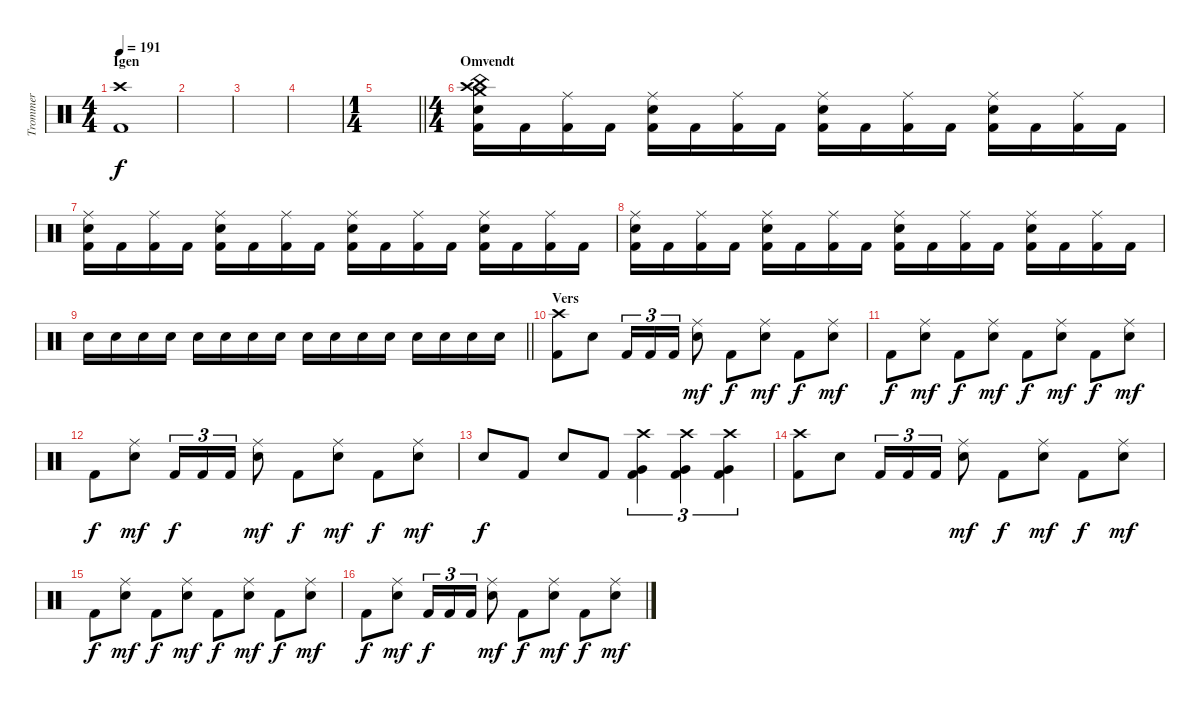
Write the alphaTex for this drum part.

\track ("Trommer" "Trommer") {instrument percussion}
\staff {score}
\articulation defaults
\ts (4 4)
\section ("" "Igen")
\tempo 191
\clef neutral
\ks c
("Crash high (hit)" "Kick (hit) 2").1{dy f} |
|
|
|
\ts (1 4)
\barLineRight lightlight
|
\ts (4 4)
\section ("" "Omvendt")
("Crash high (hit)" "Crash medium (hit)" "China (hit)" "Snare (hit) 2" "Kick (hit) 2").16 "Kick (hit) 2".16 ("Ride (middle)" "Kick (hit) 2").16 "Kick (hit) 2".16 ("Ride (middle)" "Snare (hit) 2" "Kick (hit) 2").16 "Kick (hit) 2".16 ("Ride (middle)" "Kick (hit) 2").16 "Kick (hit) 2".16 ("Ride (middle)" "Snare (hit) 2" "Kick (hit) 2").16 "Kick (hit) 2".16 ("Ride (middle)" "Kick (hit) 2").16 "Kick (hit) 2".16 ("Ride (middle)" "Snare (hit) 2" "Kick (hit) 2").16 "Kick (hit) 2".16 ("Ride (middle)" "Kick (hit) 2").16 "Kick (hit) 2".16 |
("Ride (middle)" "Snare (hit) 2" "Kick (hit) 2").16 "Kick (hit) 2".16 ("Ride (middle)" "Kick (hit) 2").16 "Kick (hit) 2".16 ("Ride (middle)" "Snare (hit) 2" "Kick (hit) 2").16 "Kick (hit) 2".16 ("Ride (middle)" "Kick (hit) 2").16 "Kick (hit) 2".16 ("Ride (middle)" "Snare (hit) 2" "Kick (hit) 2").16 "Kick (hit) 2".16 ("Ride (middle)" "Kick (hit) 2").16 "Kick (hit) 2".16 ("Ride (middle)" "Snare (hit) 2" "Kick (hit) 2").16 "Kick (hit) 2".16 ("Ride (middle)" "Kick (hit) 2").16 "Kick (hit) 2".16 |
("Ride (middle)" "Snare (hit) 2" "Kick (hit) 2").16 "Kick (hit) 2".16 ("Ride (middle)" "Kick (hit) 2").16 "Kick (hit) 2".16 ("Ride (middle)" "Snare (hit) 2" "Kick (hit) 2").16 "Kick (hit) 2".16 ("Ride (middle)" "Kick (hit) 2").16 "Kick (hit) 2".16 ("Ride (middle)" "Snare (hit) 2" "Kick (hit) 2").16 "Kick (hit) 2".16 ("Ride (middle)" "Kick (hit) 2").16 "Kick (hit) 2".16 ("Ride (middle)" "Snare (hit) 2" "Kick (hit) 2").16 "Kick (hit) 2".16 ("Ride (middle)" "Kick (hit) 2").16 "Kick (hit) 2".16 |
\barLineRight lightlight "Electric Snare (hit)".16 "Electric Snare (hit)".16 "Electric Snare (hit)".16 "Electric Snare (hit)".16 "Electric Snare (hit)".16 "Electric Snare (hit)".16 "Electric Snare (hit)".16 "Electric Snare (hit)".16 "Electric Snare (hit)".16 "Electric Snare (hit)".16 "Electric Snare (hit)".16 "Electric Snare (hit)".16 "Electric Snare (hit)".16 "Electric Snare (hit)".16 "Electric Snare (hit)".16 "Electric Snare (hit)".16
|
\section ("" "Vers")
("Crash high (hit)" "Kick (hit) 2").8 "Electric Snare (hit)".8 "Kick (hit) 2".16{tu (3 2)} "Kick (hit) 2".16{tu (3 2)} "Kick (hit) 2".16{tu (3 2)} ("Ride (middle)" "Electric Snare (hit)").8{dy mf} "Kick (hit) 2".8{dy f} ("Ride (middle)" "Electric Snare (hit)").8{dy mf} "Kick (hit) 2".8{dy f} ("Ride (middle)" "Electric Snare (hit)").8{dy mf} |
"Kick (hit) 2".8{dy f} ("Ride (middle)" "Electric Snare (hit)").8{dy mf} "Kick (hit) 2".8{dy f} ("Ride (middle)" "Electric Snare (hit)").8{dy mf} "Kick (hit) 2".8{dy f} ("Ride (middle)" "Electric Snare (hit)").8{dy mf} "Kick (hit) 2".8{dy f} ("Ride (middle)" "Electric Snare (hit)").8{dy mf} |
"Kick (hit) 2".8{dy f} ("Ride (middle)" "Electric Snare (hit)").8{dy mf} "Kick (hit) 2".16{tu (3 2) dy f} "Kick (hit) 2".16{tu (3 2)} "Kick (hit) 2".16{tu (3 2)} ("Ride (middle)" "Electric Snare (hit)").8{dy mf} "Kick (hit) 2".8{dy f} ("Ride (middle)" "Electric Snare (hit)").8{dy mf} "Kick (hit) 2".8{dy f} ("Ride (middle)" "Electric Snare (hit)").8{dy mf} |
"Electric Snare (hit)".8{dy f} "Kick (hit) 2".8 "Electric Snare (hit)".8 "Kick (hit) 2".8 ("Crash high (hit)" "Very Low Tom (hit)" "Kick (hit) 2").4{tu (3 2)} ("Crash high (hit)" "Very Low Tom (hit)" "Kick (hit) 2").4{tu (3 2)} ("Crash high (hit)" "Very Low Tom (hit)" "Kick (hit) 2").4{tu (3 2)} |
("Crash high (hit)" "Kick (hit) 2").8 "Electric Snare (hit)".8 "Kick (hit) 2".16{tu (3 2)} "Kick (hit) 2".16{tu (3 2)} "Kick (hit) 2".16{tu (3 2)} ("Ride (middle)" "Electric Snare (hit)").8{dy mf} "Kick (hit) 2".8{dy f} ("Ride (middle)" "Electric Snare (hit)").8{dy mf} "Kick (hit) 2".8{dy f} ("Ride (middle)" "Electric Snare (hit)").8{dy mf} |
"Kick (hit) 2".8{dy f} ("Ride (middle)" "Electric Snare (hit)").8{dy mf} "Kick (hit) 2".8{dy f} ("Ride (middle)" "Electric Snare (hit)").8{dy mf} "Kick (hit) 2".8{dy f} ("Ride (middle)" "Electric Snare (hit)").8{dy mf} "Kick (hit) 2".8{dy f} ("Ride (middle)" "Electric Snare (hit)").8{dy mf} |
"Kick (hit) 2".8{dy f} ("Ride (middle)" "Electric Snare (hit)").8{dy mf} "Kick (hit) 2".16{tu (3 2) dy f} "Kick (hit) 2".16{tu (3 2)} "Kick (hit) 2".16{tu (3 2)} ("Ride (middle)" "Electric Snare (hit)").8{dy mf} "Kick (hit) 2".8{dy f} ("Ride (middle)" "Electric Snare (hit)").8{dy mf} "Kick (hit) 2".8{dy f} ("Ride (middle)" "Electric Snare (hit)").8{dy mf}
